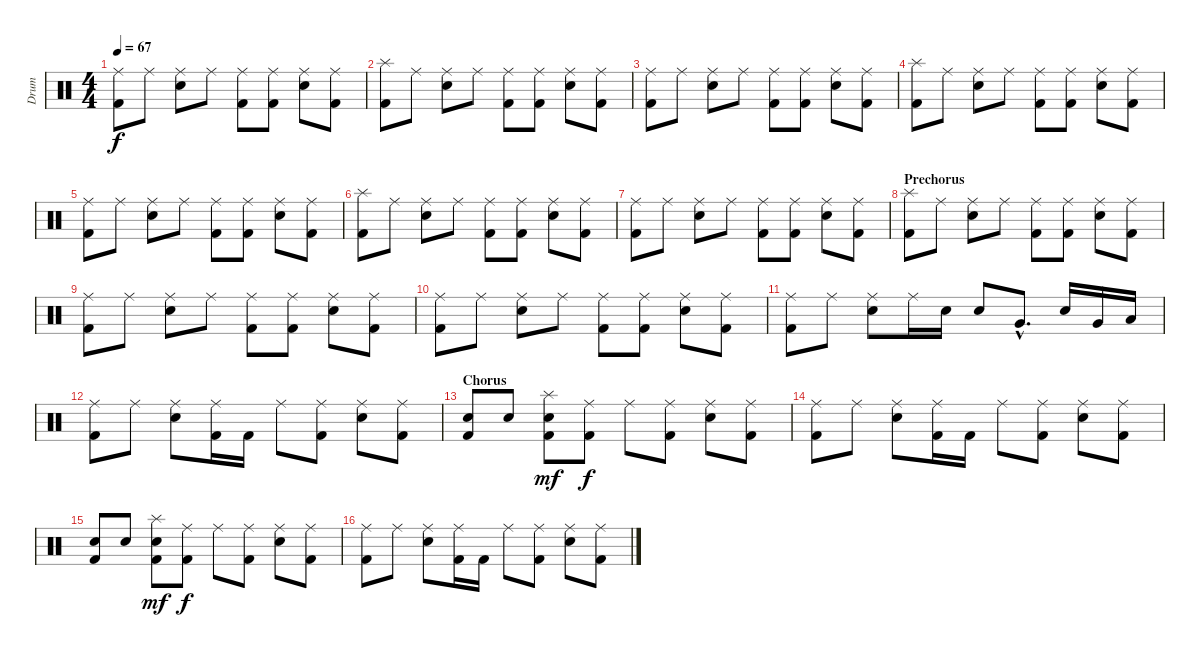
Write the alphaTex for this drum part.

\track ("Drum" "Drum") {instrument percussion}
\staff {score}
\articulation defaults
\ts (4 4)
\tempo 67
\clef neutral
\ks c
("Ride (middle)" "Kick (hit) 2").8{dy f} "Ride (middle)".8 ("Ride (middle)" "Electric Snare (hit)").8 "Ride (middle)".8 ("Ride (middle)" "Kick (hit) 2").8 ("Ride (middle)" "Kick (hit) 2").8 ("Ride (middle)" "Electric Snare (hit)").8 ("Ride (middle)" "Kick (hit) 2").8 |
("Splash (hit)" "Kick (hit) 2").8 "Ride (middle)".8 ("Ride (middle)" "Electric Snare (hit)").8 "Ride (middle)".8 ("Ride (middle)" "Kick (hit) 2").8 ("Ride (middle)" "Kick (hit) 2").8 ("Ride (middle)" "Electric Snare (hit)").8 ("Ride (middle)" "Kick (hit) 2").8 |
("Ride (middle)" "Kick (hit) 2").8 "Ride (middle)".8 ("Ride (middle)" "Electric Snare (hit)").8 "Ride (middle)".8 ("Ride (middle)" "Kick (hit) 2").8 ("Ride (middle)" "Kick (hit) 2").8 ("Ride (middle)" "Electric Snare (hit)").8 ("Ride (middle)" "Kick (hit) 2").8 |
("Splash (hit)" "Kick (hit) 2").8 "Ride (middle)".8 ("Ride (middle)" "Electric Snare (hit)").8 "Ride (middle)".8 ("Ride (middle)" "Kick (hit) 2").8 ("Ride (middle)" "Kick (hit) 2").8 ("Ride (middle)" "Electric Snare (hit)").8 ("Ride (middle)" "Kick (hit) 2").8 |
("Ride (middle)" "Kick (hit) 2").8 "Ride (middle)".8 ("Ride (middle)" "Electric Snare (hit)").8 "Ride (middle)".8 ("Ride (middle)" "Kick (hit) 2").8 ("Ride (middle)" "Kick (hit) 2").8 ("Ride (middle)" "Electric Snare (hit)").8 ("Ride (middle)" "Kick (hit) 2").8 |
("Splash (hit)" "Kick (hit) 2").8 "Ride (middle)".8 ("Ride (middle)" "Electric Snare (hit)").8 "Ride (middle)".8 ("Ride (middle)" "Kick (hit) 2").8 ("Ride (middle)" "Kick (hit) 2").8 ("Ride (middle)" "Electric Snare (hit)").8 ("Ride (middle)" "Kick (hit) 2").8 |
("Ride (middle)" "Kick (hit) 2").8 "Ride (middle)".8 ("Ride (middle)" "Electric Snare (hit)").8 "Ride (middle)".8 ("Ride (middle)" "Kick (hit) 2").8 ("Ride (middle)" "Kick (hit) 2").8 ("Ride (middle)" "Electric Snare (hit)").8 ("Ride (middle)" "Kick (hit) 2").8 |
\section ("" "Prechorus")
("Splash (hit)" "Kick (hit) 2").8 "Ride (middle)".8 ("Ride (middle)" "Electric Snare (hit)").8 "Ride (middle)".8 ("Ride (middle)" "Kick (hit) 2").8 ("Ride (middle)" "Kick (hit) 2").8 ("Ride (middle)" "Electric Snare (hit)").8 ("Ride (middle)" "Kick (hit) 2").8 |
("Ride (middle)" "Kick (hit) 2").8 "Ride (middle)".8 ("Ride (middle)" "Electric Snare (hit)").8 "Ride (middle)".8 ("Ride (middle)" "Kick (hit) 2").8 ("Ride (middle)" "Kick (hit) 2").8 ("Ride (middle)" "Electric Snare (hit)").8 ("Ride (middle)" "Kick (hit) 2").8 |
("Ride (middle)" "Kick (hit) 2").8 "Ride (middle)".8 ("Ride (middle)" "Electric Snare (hit)").8 "Ride (middle)".8 ("Ride (middle)" "Kick (hit) 2").8 ("Ride (middle)" "Kick (hit) 2").8 ("Ride (middle)" "Electric Snare (hit)").8 ("Ride (middle)" "Kick (hit) 2").8 |
("Ride (middle)" "Kick (hit) 2").8 "Ride (middle)".8 ("Ride (middle)" "Electric Snare (hit)").8 "Ride (middle)".16 "Electric Snare (hit)".16 "Electric Snare (hit)".8 "Very Low Tom (hit)"{hac}.8{d} "Electric Snare (hit)".16 "Very Low Tom (hit)".16 "Low Floor Tom (hit)".16 |
("Ride (middle)" "Kick (hit) 2").8 "Ride (middle)".8 ("Ride (middle)" "Electric Snare (hit)").8 ("Ride (middle)" "Kick (hit) 2").16 "Kick (hit) 2".16 "Ride (middle)".8 ("Ride (middle)" "Kick (hit) 2").8 ("Ride (middle)" "Electric Snare (hit)").8 ("Ride (middle)" "Kick (hit) 2").8 |
\section ("" "Chorus")
("Electric Snare (hit)" "Kick (hit) 2").8 "Electric Snare (hit)".8 ("Splash (hit)" "Electric Snare (hit)" "Kick (hit) 2").8{dy mf} ("Ride (middle)" "Kick (hit) 2").8{dy f} "Ride (middle)".8 ("Ride (middle)" "Kick (hit) 2").8 ("Ride (middle)" "Electric Snare (hit)").8 ("Ride (middle)" "Kick (hit) 2").8 |
("Ride (middle)" "Kick (hit) 2").8 "Ride (middle)".8 ("Ride (middle)" "Electric Snare (hit)").8 ("Ride (middle)" "Kick (hit) 2").16 "Kick (hit) 2".16 "Ride (middle)".8 ("Ride (middle)" "Kick (hit) 2").8 ("Ride (middle)" "Electric Snare (hit)").8 ("Ride (middle)" "Kick (hit) 2").8 |
("Electric Snare (hit)" "Kick (hit) 2").8 "Electric Snare (hit)".8 ("Splash (hit)" "Electric Snare (hit)" "Kick (hit) 2").8{dy mf} ("Ride (middle)" "Kick (hit) 2").8{dy f} "Ride (middle)".8 ("Ride (middle)" "Kick (hit) 2").8 ("Ride (middle)" "Electric Snare (hit)").8 ("Ride (middle)" "Kick (hit) 2").8 |
("Ride (middle)" "Kick (hit) 2").8 "Ride (middle)".8 ("Ride (middle)" "Electric Snare (hit)").8 ("Ride (middle)" "Kick (hit) 2").16 "Kick (hit) 2".16 "Ride (middle)".8 ("Ride (middle)" "Kick (hit) 2").8 ("Ride (middle)" "Electric Snare (hit)").8 ("Ride (middle)" "Kick (hit) 2").8
